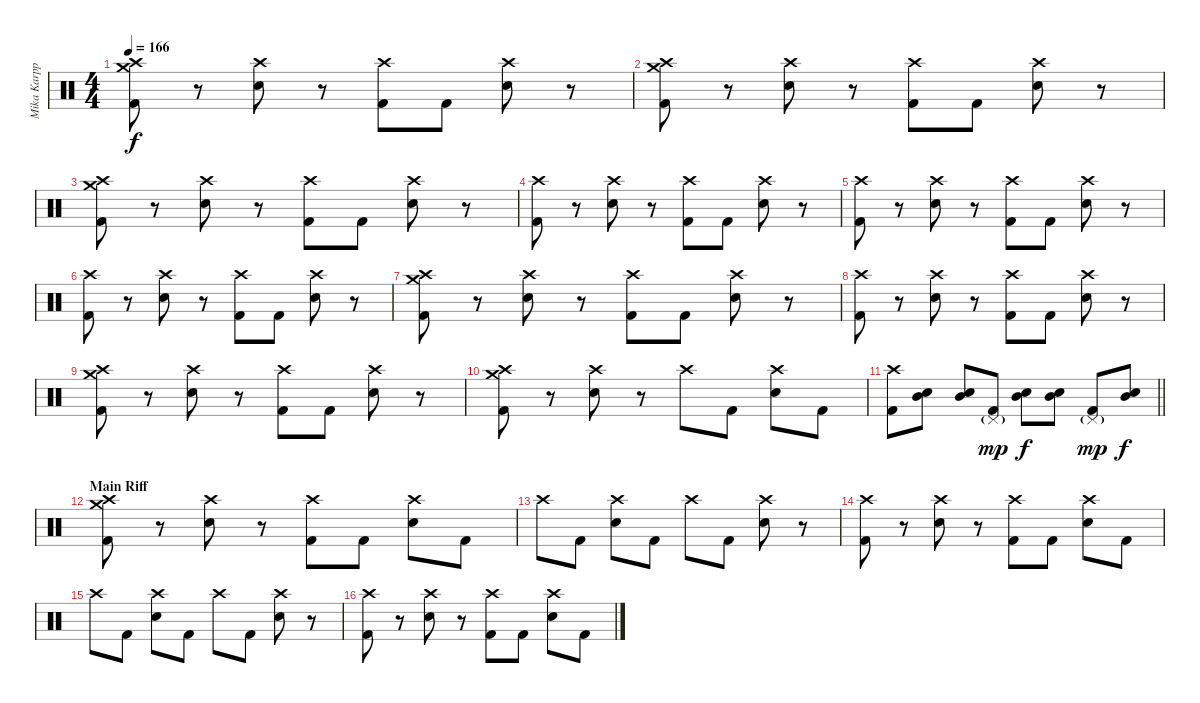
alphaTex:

\track ("Mika Karppinen" "Mika Karpp") {instrument percussion}
\staff {score}
\articulation defaults
\ts (4 4)
\tempo 166
\clef neutral
\ks c
("Crash medium (hit)" "Crash high (hit)" "Kick (hit) 2").8{dy f} r.8 ("Crash high (hit)" "Snare (hit) 2").8 r.8 ("Crash high (hit)" "Kick (hit) 2").8 "Kick (hit) 2".8 ("Crash high (hit)" "Snare (hit) 2").8 r.8 |
("Crash medium (hit)" "Crash high (hit)" "Kick (hit) 2").8 r.8 ("Crash high (hit)" "Snare (hit) 2").8 r.8 ("Crash high (hit)" "Kick (hit) 2").8 "Kick (hit) 2".8 ("Crash high (hit)" "Snare (hit) 2").8 r.8 |
("Crash medium (hit)" "Crash high (hit)" "Kick (hit) 2").8 r.8 ("Crash high (hit)" "Snare (hit) 2").8 r.8 ("Crash high (hit)" "Kick (hit) 2").8 "Kick (hit) 2".8 ("Crash high (hit)" "Snare (hit) 2").8 r.8 |
("Crash high (hit)" "Kick (hit) 2").8 r.8 ("Crash high (hit)" "Snare (hit) 2").8 r.8 ("Crash high (hit)" "Kick (hit) 2").8 "Kick (hit) 2".8 ("Crash high (hit)" "Snare (hit) 2").8 r.8 |
("Crash high (hit)" "Kick (hit) 2").8 r.8 ("Crash high (hit)" "Snare (hit) 2").8 r.8 ("Crash high (hit)" "Kick (hit) 2").8 "Kick (hit) 2".8 ("Crash high (hit)" "Snare (hit) 2").8 r.8 |
("Crash high (hit)" "Kick (hit) 2").8 r.8 ("Crash high (hit)" "Snare (hit) 2").8 r.8 ("Crash high (hit)" "Kick (hit) 2").8 "Kick (hit) 2".8 ("Crash high (hit)" "Snare (hit) 2").8 r.8 |
("Crash medium (hit)" "Crash high (hit)" "Kick (hit) 2").8 r.8 ("Crash high (hit)" "Snare (hit) 2").8 r.8 ("Crash high (hit)" "Kick (hit) 2").8 "Kick (hit) 2".8 ("Crash high (hit)" "Snare (hit) 2").8 r.8 |
("Crash high (hit)" "Kick (hit) 2").8 r.8 ("Crash high (hit)" "Snare (hit) 2").8 r.8 ("Crash high (hit)" "Kick (hit) 2").8 "Kick (hit) 2".8 ("Crash high (hit)" "Snare (hit) 2").8 r.8 |
("Crash medium (hit)" "Crash high (hit)" "Kick (hit) 2").8 r.8 ("Crash high (hit)" "Snare (hit) 2").8 r.8 ("Crash high (hit)" "Kick (hit) 2").8 "Kick (hit) 2".8 ("Crash high (hit)" "Snare (hit) 2").8 r.8 |
("Crash medium (hit)" "Crash high (hit)" "Kick (hit) 2").8 r.8 ("Crash high (hit)" "Snare (hit) 2").8 r.8 "Crash high (hit)".8 "Kick (hit) 2".8 ("Crash high (hit)" "Snare (hit) 2").8 "Kick (hit) 2".8 |
\barLineRight lightlight
("Crash high (hit)" "Kick (hit) 2").8 ("Mid Tom (hit)" "Snare (hit) 2").8 ("Mid Tom (hit)" "Snare (hit) 2").8 ("Pedal Hi-Hat (hit)"{g} "Kick (hit) 2").8{dy mp} ("Mid Tom (hit)" "Snare (hit) 2").8{dy f} ("Mid Tom (hit)" "Snare (hit) 2").8 ("Pedal Hi-Hat (hit)"{g} "Kick (hit) 2").8{dy mp} ("Mid Tom (hit)" "Snare (hit) 2").8{dy f} |
\section ("" "Main Riff")
("Crash medium (hit)" "Crash high (hit)" "Kick (hit) 2").8 r.8 ("Crash high (hit)" "Snare (hit) 2").8 r.8 ("Crash high (hit)" "Kick (hit) 2").8 "Kick (hit) 2".8 ("Crash high (hit)" "Snare (hit) 2").8 "Kick (hit) 2".8 |
"Crash high (hit)".8 "Kick (hit) 2".8 ("Crash high (hit)" "Snare (hit) 2").8 "Kick (hit) 2".8 "Crash high (hit)".8 "Kick (hit) 2".8 ("Crash high (hit)" "Snare (hit) 2").8 r.8 |
("Crash high (hit)" "Kick (hit) 2").8 r.8 ("Crash high (hit)" "Snare (hit) 2").8 r.8 ("Crash high (hit)" "Kick (hit) 2").8 "Kick (hit) 2".8 ("Crash high (hit)" "Snare (hit) 2").8 "Kick (hit) 2".8 |
"Crash high (hit)".8 "Kick (hit) 2".8 ("Crash high (hit)" "Snare (hit) 2").8 "Kick (hit) 2".8 "Crash high (hit)".8 "Kick (hit) 2".8 ("Crash high (hit)" "Snare (hit) 2").8 r.8 |
("Crash high (hit)" "Kick (hit) 2").8 r.8 ("Crash high (hit)" "Snare (hit) 2").8 r.8 ("Crash high (hit)" "Kick (hit) 2").8 "Kick (hit) 2".8 ("Crash high (hit)" "Snare (hit) 2").8 "Kick (hit) 2".8
